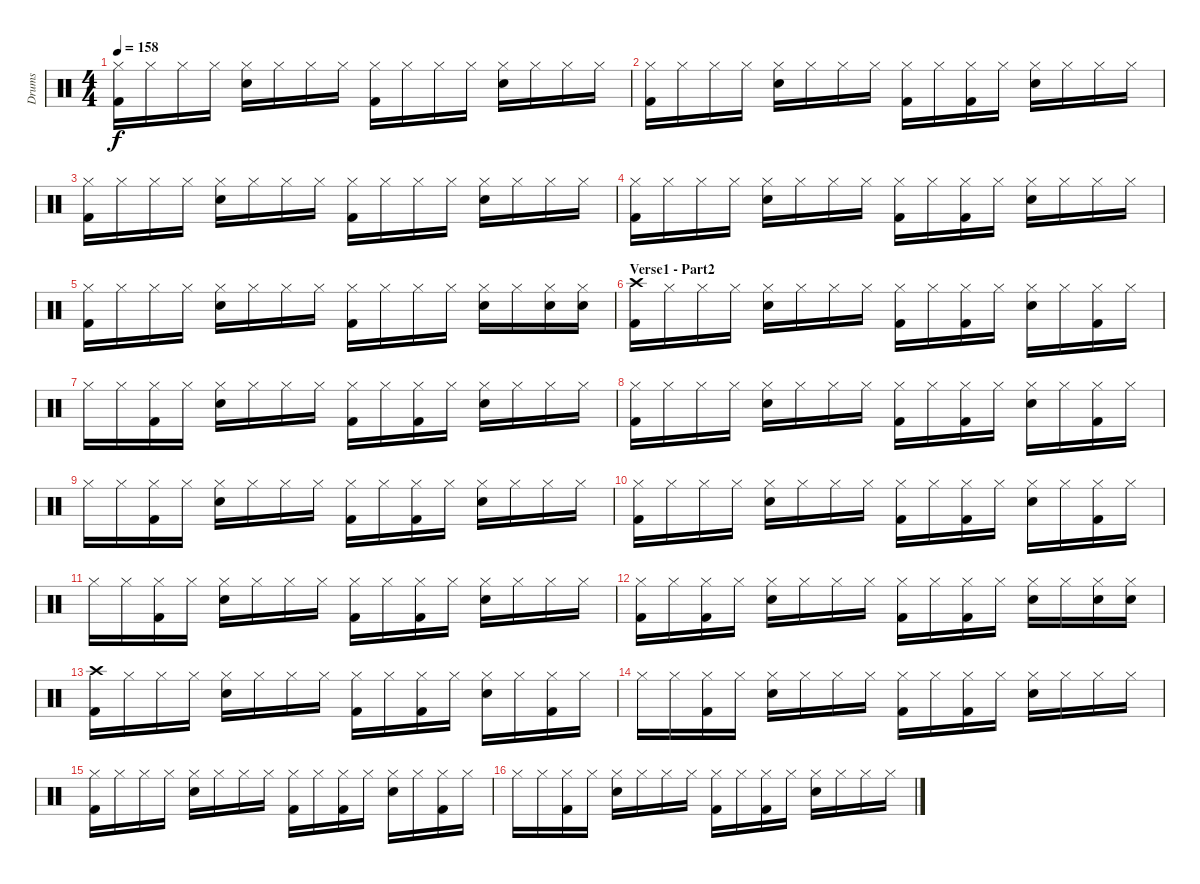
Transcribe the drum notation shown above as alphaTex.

\track ("Drums" "Drums") {instrument percussion}
\staff {score}
\articulation defaults
\ts (4 4)
\tempo 158
\clef neutral
\ks c
("Hi-Hat (closed)" "Kick (hit) 2").16{dy f} "Hi-Hat (closed)".16 "Hi-Hat (closed)".16 "Hi-Hat (closed)".16 ("Hi-Hat (closed)" "Snare (hit) 2").16 "Hi-Hat (closed)".16 "Hi-Hat (closed)".16 "Hi-Hat (closed)".16 ("Hi-Hat (closed)" "Kick (hit) 2").16 "Hi-Hat (closed)".16 "Hi-Hat (closed)".16 "Hi-Hat (closed)".16 ("Hi-Hat (closed)" "Snare (hit) 2").16 "Hi-Hat (closed)".16 "Hi-Hat (closed)".16 "Hi-Hat (closed)".16 |
("Hi-Hat (closed)" "Kick (hit) 2").16 "Hi-Hat (closed)".16 "Hi-Hat (closed)".16 "Hi-Hat (closed)".16 ("Hi-Hat (closed)" "Snare (hit) 2").16 "Hi-Hat (closed)".16 "Hi-Hat (closed)".16 "Hi-Hat (closed)".16 ("Hi-Hat (closed)" "Kick (hit) 2").16 "Hi-Hat (closed)".16 ("Hi-Hat (closed)" "Kick (hit) 2").16 "Hi-Hat (closed)".16 ("Hi-Hat (closed)" "Snare (hit) 2").16 "Hi-Hat (closed)".16 "Hi-Hat (closed)".16 "Hi-Hat (closed)".16 |
("Hi-Hat (closed)" "Kick (hit) 2").16 "Hi-Hat (closed)".16 "Hi-Hat (closed)".16 "Hi-Hat (closed)".16 ("Hi-Hat (closed)" "Snare (hit) 2").16 "Hi-Hat (closed)".16 "Hi-Hat (closed)".16 "Hi-Hat (closed)".16 ("Hi-Hat (closed)" "Kick (hit) 2").16 "Hi-Hat (closed)".16 "Hi-Hat (closed)".16 "Hi-Hat (closed)".16 ("Hi-Hat (closed)" "Snare (hit) 2").16 "Hi-Hat (closed)".16 "Hi-Hat (closed)".16 "Hi-Hat (closed)".16 |
("Hi-Hat (closed)" "Kick (hit) 2").16 "Hi-Hat (closed)".16 "Hi-Hat (closed)".16 "Hi-Hat (closed)".16 ("Hi-Hat (closed)" "Snare (hit) 2").16 "Hi-Hat (closed)".16 "Hi-Hat (closed)".16 "Hi-Hat (closed)".16 ("Hi-Hat (closed)" "Kick (hit) 2").16 "Hi-Hat (closed)".16 ("Hi-Hat (closed)" "Kick (hit) 2").16 "Hi-Hat (closed)".16 ("Hi-Hat (closed)" "Snare (hit) 2").16 "Hi-Hat (closed)".16 "Hi-Hat (closed)".16 "Hi-Hat (closed)".16 |
("Hi-Hat (closed)" "Kick (hit) 2").16 "Hi-Hat (closed)".16 "Hi-Hat (closed)".16 "Hi-Hat (closed)".16 ("Hi-Hat (closed)" "Snare (hit) 2").16 "Hi-Hat (closed)".16 "Hi-Hat (closed)".16 "Hi-Hat (closed)".16 ("Hi-Hat (closed)" "Kick (hit) 2").16 "Hi-Hat (closed)".16 "Hi-Hat (closed)".16 "Hi-Hat (closed)".16 ("Hi-Hat (closed)" "Snare (hit) 2").16 "Hi-Hat (closed)".16 ("Hi-Hat (closed)" "Snare (hit) 2").16 ("Hi-Hat (closed)" "Snare (hit) 2").16 |
\section ("" "Verse1 - Part2")
("Crash high (hit)" "Kick (hit) 2").16 "Hi-Hat (closed)".16 "Hi-Hat (closed)".16 "Hi-Hat (closed)".16 ("Hi-Hat (closed)" "Snare (hit) 2").16 "Hi-Hat (closed)".16 "Hi-Hat (closed)".16 "Hi-Hat (closed)".16 ("Hi-Hat (closed)" "Kick (hit) 2").16 "Hi-Hat (closed)".16 ("Hi-Hat (closed)" "Kick (hit) 2").16 "Hi-Hat (closed)".16 ("Hi-Hat (closed)" "Snare (hit) 2").16 "Hi-Hat (closed)".16 ("Hi-Hat (closed)" "Kick (hit) 2").16 "Hi-Hat (closed)".16 |
"Hi-Hat (closed)".16 "Hi-Hat (closed)".16 ("Hi-Hat (closed)" "Kick (hit) 2").16 "Hi-Hat (closed)".16 ("Hi-Hat (closed)" "Snare (hit) 2").16 "Hi-Hat (closed)".16 "Hi-Hat (closed)".16 "Hi-Hat (closed)".16 ("Hi-Hat (closed)" "Kick (hit) 2").16 "Hi-Hat (closed)".16 ("Hi-Hat (closed)" "Kick (hit) 2").16 "Hi-Hat (closed)".16 ("Hi-Hat (closed)" "Snare (hit) 2").16 "Hi-Hat (closed)".16 "Hi-Hat (closed)".16 "Hi-Hat (closed)".16 |
("Hi-Hat (closed)" "Kick (hit) 2").16 "Hi-Hat (closed)".16 "Hi-Hat (closed)".16 "Hi-Hat (closed)".16 ("Hi-Hat (closed)" "Snare (hit) 2").16 "Hi-Hat (closed)".16 "Hi-Hat (closed)".16 "Hi-Hat (closed)".16 ("Hi-Hat (closed)" "Kick (hit) 2").16 "Hi-Hat (closed)".16 ("Hi-Hat (closed)" "Kick (hit) 2").16 "Hi-Hat (closed)".16 ("Hi-Hat (closed)" "Snare (hit) 2").16 "Hi-Hat (closed)".16 ("Hi-Hat (closed)" "Kick (hit) 2").16 "Hi-Hat (closed)".16 |
"Hi-Hat (closed)".16 "Hi-Hat (closed)".16 ("Hi-Hat (closed)" "Kick (hit) 2").16 "Hi-Hat (closed)".16 ("Hi-Hat (closed)" "Snare (hit) 2").16 "Hi-Hat (closed)".16 "Hi-Hat (closed)".16 "Hi-Hat (closed)".16 ("Hi-Hat (closed)" "Kick (hit) 2").16 "Hi-Hat (closed)".16 ("Hi-Hat (closed)" "Kick (hit) 2").16 "Hi-Hat (closed)".16 ("Hi-Hat (closed)" "Snare (hit) 2").16 "Hi-Hat (closed)".16 "Hi-Hat (closed)".16 "Hi-Hat (closed)".16 |
("Hi-Hat (closed)" "Kick (hit) 2").16 "Hi-Hat (closed)".16 "Hi-Hat (closed)".16 "Hi-Hat (closed)".16 ("Hi-Hat (closed)" "Snare (hit) 2").16 "Hi-Hat (closed)".16 "Hi-Hat (closed)".16 "Hi-Hat (closed)".16 ("Hi-Hat (closed)" "Kick (hit) 2").16 "Hi-Hat (closed)".16 ("Hi-Hat (closed)" "Kick (hit) 2").16 "Hi-Hat (closed)".16 ("Hi-Hat (closed)" "Snare (hit) 2").16 "Hi-Hat (closed)".16 ("Hi-Hat (closed)" "Kick (hit) 2").16 "Hi-Hat (closed)".16 |
"Hi-Hat (closed)".16 "Hi-Hat (closed)".16 ("Hi-Hat (closed)" "Kick (hit) 2").16 "Hi-Hat (closed)".16 ("Hi-Hat (closed)" "Snare (hit) 2").16 "Hi-Hat (closed)".16 "Hi-Hat (closed)".16 "Hi-Hat (closed)".16 ("Hi-Hat (closed)" "Kick (hit) 2").16 "Hi-Hat (closed)".16 ("Hi-Hat (closed)" "Kick (hit) 2").16 "Hi-Hat (closed)".16 ("Hi-Hat (closed)" "Snare (hit) 2").16 "Hi-Hat (closed)".16 "Hi-Hat (closed)".16 "Hi-Hat (closed)".16 |
("Hi-Hat (closed)" "Kick (hit) 2").16 "Hi-Hat (closed)".16 ("Hi-Hat (closed)" "Kick (hit) 2").16 "Hi-Hat (closed)".16 ("Hi-Hat (closed)" "Snare (hit) 2").16 "Hi-Hat (closed)".16 "Hi-Hat (closed)".16 "Hi-Hat (closed)".16 ("Hi-Hat (closed)" "Kick (hit) 2").16 "Hi-Hat (closed)".16 ("Hi-Hat (closed)" "Kick (hit) 2").16 "Hi-Hat (closed)".16 ("Hi-Hat (closed)" "Snare (hit) 2").16 "Hi-Hat (closed)".16 ("Hi-Hat (closed)" "Snare (hit) 2").16 ("Hi-Hat (closed)" "Snare (hit) 2").16 |
("Crash high (hit)" "Kick (hit) 2").16 "Hi-Hat (closed)".16 "Hi-Hat (closed)".16 "Hi-Hat (closed)".16 ("Hi-Hat (closed)" "Snare (hit) 2").16 "Hi-Hat (closed)".16 "Hi-Hat (closed)".16 "Hi-Hat (closed)".16 ("Hi-Hat (closed)" "Kick (hit) 2").16 "Hi-Hat (closed)".16 ("Hi-Hat (closed)" "Kick (hit) 2").16 "Hi-Hat (closed)".16 ("Hi-Hat (closed)" "Snare (hit) 2").16 "Hi-Hat (closed)".16 ("Hi-Hat (closed)" "Kick (hit) 2").16 "Hi-Hat (closed)".16 |
"Hi-Hat (closed)".16 "Hi-Hat (closed)".16 ("Hi-Hat (closed)" "Kick (hit) 2").16 "Hi-Hat (closed)".16 ("Hi-Hat (closed)" "Snare (hit) 2").16 "Hi-Hat (closed)".16 "Hi-Hat (closed)".16 "Hi-Hat (closed)".16 ("Hi-Hat (closed)" "Kick (hit) 2").16 "Hi-Hat (closed)".16 ("Hi-Hat (closed)" "Kick (hit) 2").16 "Hi-Hat (closed)".16 ("Hi-Hat (closed)" "Snare (hit) 2").16 "Hi-Hat (closed)".16 "Hi-Hat (closed)".16 "Hi-Hat (closed)".16 |
("Hi-Hat (closed)" "Kick (hit) 2").16 "Hi-Hat (closed)".16 "Hi-Hat (closed)".16 "Hi-Hat (closed)".16 ("Hi-Hat (closed)" "Snare (hit) 2").16 "Hi-Hat (closed)".16 "Hi-Hat (closed)".16 "Hi-Hat (closed)".16 ("Hi-Hat (closed)" "Kick (hit) 2").16 "Hi-Hat (closed)".16 ("Hi-Hat (closed)" "Kick (hit) 2").16 "Hi-Hat (closed)".16 ("Hi-Hat (closed)" "Snare (hit) 2").16 "Hi-Hat (closed)".16 ("Hi-Hat (closed)" "Kick (hit) 2").16 "Hi-Hat (closed)".16 |
"Hi-Hat (closed)".16 "Hi-Hat (closed)".16 ("Hi-Hat (closed)" "Kick (hit) 2").16 "Hi-Hat (closed)".16 ("Hi-Hat (closed)" "Snare (hit) 2").16 "Hi-Hat (closed)".16 "Hi-Hat (closed)".16 "Hi-Hat (closed)".16 ("Hi-Hat (closed)" "Kick (hit) 2").16 "Hi-Hat (closed)".16 ("Hi-Hat (closed)" "Kick (hit) 2").16 "Hi-Hat (closed)".16 ("Hi-Hat (closed)" "Snare (hit) 2").16 "Hi-Hat (closed)".16 "Hi-Hat (closed)".16 "Hi-Hat (closed)".16
